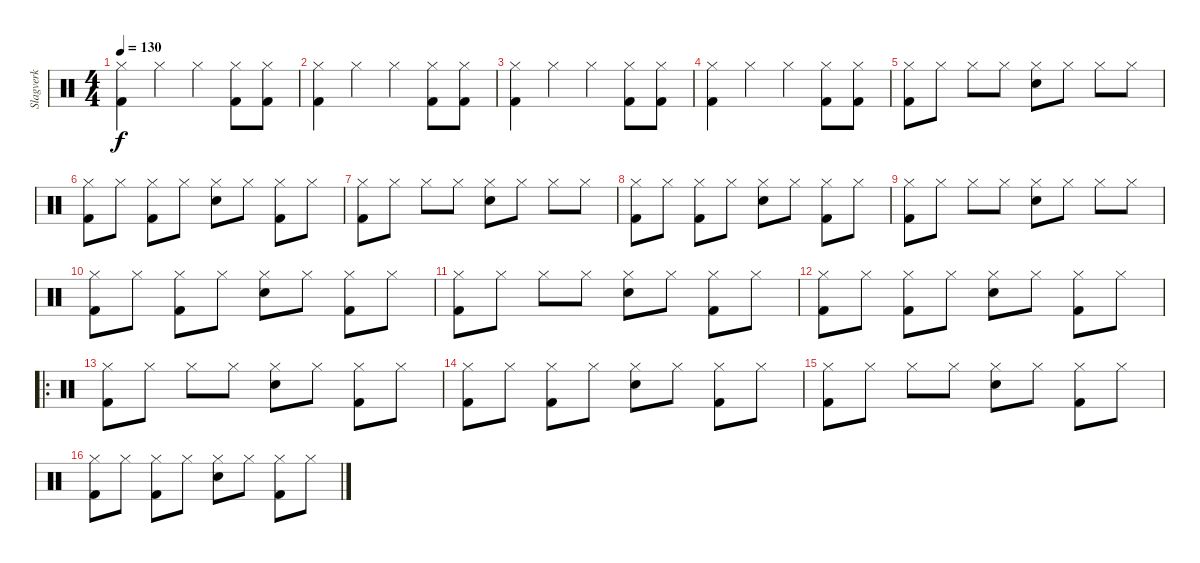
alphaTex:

\track ("Slagverk" "Slagverk") {instrument percussion}
\staff {score}
\articulation defaults
\ts (4 4)
\tempo 130
\clef neutral
\ks c
("Hi-Hat (closed)" "Kick (hit) 2").4{dy f} "Hi-Hat (closed)".4 "Hi-Hat (closed)".4 ("Hi-Hat (closed)" "Kick (hit) 2").8 ("Hi-Hat (closed)" "Kick (hit) 2").8 |
("Hi-Hat (closed)" "Kick (hit) 2").4 "Hi-Hat (closed)".4 "Hi-Hat (closed)".4 ("Hi-Hat (closed)" "Kick (hit) 2").8 ("Hi-Hat (closed)" "Kick (hit) 2").8 |
("Hi-Hat (closed)" "Kick (hit) 2").4 "Hi-Hat (closed)".4 "Hi-Hat (closed)".4 ("Hi-Hat (closed)" "Kick (hit) 2").8 ("Hi-Hat (closed)" "Kick (hit) 2").8 |
("Hi-Hat (closed)" "Kick (hit) 2").4 "Hi-Hat (closed)".4 "Hi-Hat (closed)".4 ("Hi-Hat (closed)" "Kick (hit) 2").8 ("Hi-Hat (closed)" "Kick (hit) 2").8 |
("Hi-Hat (closed)" "Kick (hit) 2").8 "Hi-Hat (closed)".8 "Hi-Hat (closed)".8 "Hi-Hat (closed)".8 ("Hi-Hat (closed)" "Electric Snare (hit)").8 "Hi-Hat (closed)".8 "Hi-Hat (closed)".8 "Hi-Hat (closed)".8 |
("Hi-Hat (closed)" "Kick (hit) 2").8 "Hi-Hat (closed)".8 ("Hi-Hat (closed)" "Kick (hit) 2").8 "Hi-Hat (closed)".8 ("Hi-Hat (closed)" "Electric Snare (hit)").8 "Hi-Hat (closed)".8 ("Hi-Hat (closed)" "Kick (hit) 2").8 "Hi-Hat (closed)".8 |
("Hi-Hat (closed)" "Kick (hit) 2").8 "Hi-Hat (closed)".8 "Hi-Hat (closed)".8 "Hi-Hat (closed)".8 ("Hi-Hat (closed)" "Electric Snare (hit)").8 "Hi-Hat (closed)".8 "Hi-Hat (closed)".8 "Hi-Hat (closed)".8 |
("Hi-Hat (closed)" "Kick (hit) 2").8 "Hi-Hat (closed)".8 ("Hi-Hat (closed)" "Kick (hit) 2").8 "Hi-Hat (closed)".8 ("Hi-Hat (closed)" "Electric Snare (hit)").8 "Hi-Hat (closed)".8 ("Hi-Hat (closed)" "Kick (hit) 2").8 "Hi-Hat (closed)".8 |
("Hi-Hat (closed)" "Kick (hit) 2").8 "Hi-Hat (closed)".8 "Hi-Hat (closed)".8 "Hi-Hat (closed)".8 ("Hi-Hat (closed)" "Electric Snare (hit)").8 "Hi-Hat (closed)".8 "Hi-Hat (closed)".8 "Hi-Hat (closed)".8 |
("Hi-Hat (closed)" "Kick (hit) 2").8 "Hi-Hat (closed)".8 ("Hi-Hat (closed)" "Kick (hit) 2").8 "Hi-Hat (closed)".8 ("Hi-Hat (closed)" "Electric Snare (hit)").8 "Hi-Hat (closed)".8 ("Hi-Hat (closed)" "Kick (hit) 2").8 "Hi-Hat (closed)".8 |
("Hi-Hat (closed)" "Kick (hit) 2").8 "Hi-Hat (closed)".8 "Hi-Hat (closed)".8 "Hi-Hat (closed)".8 ("Hi-Hat (closed)" "Electric Snare (hit)").8 "Hi-Hat (closed)".8 ("Hi-Hat (closed)" "Kick (hit) 2").8 "Hi-Hat (closed)".8 |
("Hi-Hat (closed)" "Kick (hit) 2").8 "Hi-Hat (closed)".8 ("Hi-Hat (closed)" "Kick (hit) 2").8 "Hi-Hat (closed)".8 ("Hi-Hat (closed)" "Electric Snare (hit)").8 "Hi-Hat (closed)".8 ("Hi-Hat (closed)" "Kick (hit) 2").8 "Hi-Hat (closed)".8 |
\ro
("Hi-Hat (closed)" "Kick (hit) 2").8 "Hi-Hat (closed)".8 "Hi-Hat (closed)".8 "Hi-Hat (closed)".8 ("Hi-Hat (closed)" "Electric Snare (hit)").8 "Hi-Hat (closed)".8 ("Hi-Hat (closed)" "Kick (hit) 2").8 "Hi-Hat (closed)".8 |
("Hi-Hat (closed)" "Kick (hit) 2").8 "Hi-Hat (closed)".8 ("Hi-Hat (closed)" "Kick (hit) 2").8 "Hi-Hat (closed)".8 ("Hi-Hat (closed)" "Electric Snare (hit)").8 "Hi-Hat (closed)".8 ("Hi-Hat (closed)" "Kick (hit) 2").8 "Hi-Hat (closed)".8 |
("Hi-Hat (closed)" "Kick (hit) 2").8 "Hi-Hat (closed)".8 "Hi-Hat (closed)".8 "Hi-Hat (closed)".8 ("Hi-Hat (closed)" "Electric Snare (hit)").8 "Hi-Hat (closed)".8 ("Hi-Hat (closed)" "Kick (hit) 2").8 "Hi-Hat (closed)".8 |
("Hi-Hat (closed)" "Kick (hit) 2").8 "Hi-Hat (closed)".8 ("Hi-Hat (closed)" "Kick (hit) 2").8 "Hi-Hat (closed)".8 ("Hi-Hat (closed)" "Electric Snare (hit)").8 "Hi-Hat (closed)".8 ("Hi-Hat (closed)" "Kick (hit) 2").8 "Hi-Hat (closed)".8
